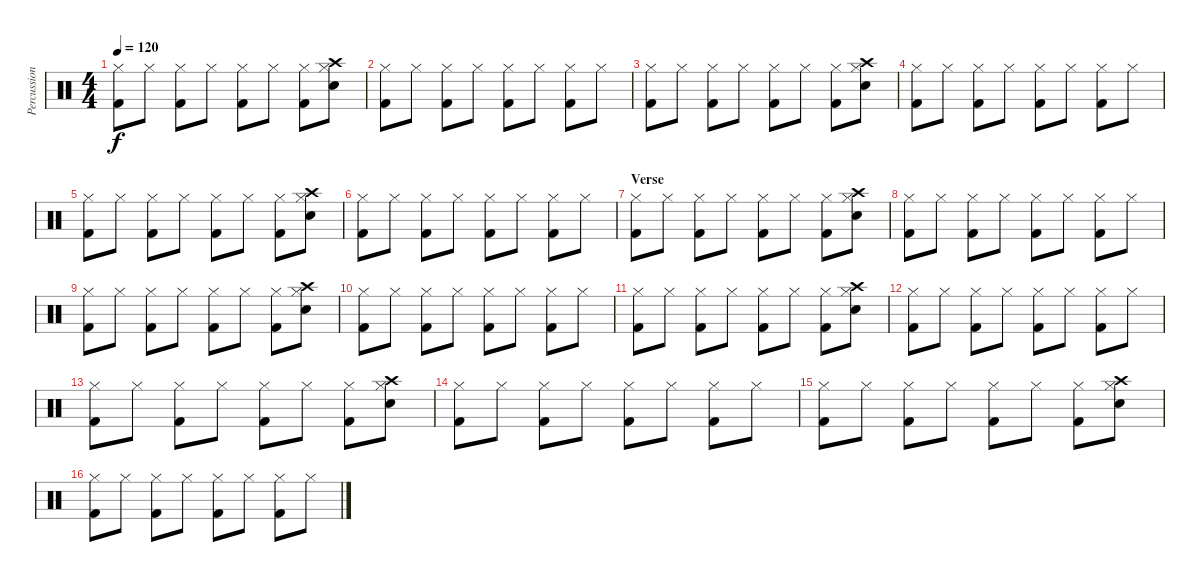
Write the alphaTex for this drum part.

\track ("Percussion" "Percussion") {instrument percussion}
\staff {score}
\articulation defaults
\ts (4 4)
\tempo 120
\clef neutral
\ks c
("Hi-Hat (closed)" "Kick (hit) 2").8{dy f} "Hi-Hat (closed)".8 ("Hi-Hat (closed)" "Kick (hit) 2").8 "Hi-Hat (closed)".8 ("Hi-Hat (closed)" "Kick (hit) 2").8 "Hi-Hat (closed)".8 ("Hi-Hat (closed)" "Kick (hit) 2").8 ("Hi-Hat (closed)" "Snare (hit) 2" "Crash high (hit)").8 |
("Hi-Hat (closed)" "Kick (hit) 2").8 "Hi-Hat (closed)".8 ("Hi-Hat (closed)" "Kick (hit) 2").8 "Hi-Hat (closed)".8 ("Hi-Hat (closed)" "Kick (hit) 2").8 "Hi-Hat (closed)".8 ("Hi-Hat (closed)" "Kick (hit) 2").8 "Hi-Hat (closed)".8 |
("Hi-Hat (closed)" "Kick (hit) 2").8 "Hi-Hat (closed)".8 ("Hi-Hat (closed)" "Kick (hit) 2").8 "Hi-Hat (closed)".8 ("Hi-Hat (closed)" "Kick (hit) 2").8 "Hi-Hat (closed)".8 ("Hi-Hat (closed)" "Kick (hit) 2").8 ("Hi-Hat (closed)" "Snare (hit) 2" "Crash high (hit)").8 |
("Hi-Hat (closed)" "Kick (hit) 2").8 "Hi-Hat (closed)".8 ("Hi-Hat (closed)" "Kick (hit) 2").8 "Hi-Hat (closed)".8 ("Hi-Hat (closed)" "Kick (hit) 2").8 "Hi-Hat (closed)".8 ("Hi-Hat (closed)" "Kick (hit) 2").8 "Hi-Hat (closed)".8 |
("Hi-Hat (closed)" "Kick (hit) 2").8 "Hi-Hat (closed)".8 ("Hi-Hat (closed)" "Kick (hit) 2").8 "Hi-Hat (closed)".8 ("Hi-Hat (closed)" "Kick (hit) 2").8 "Hi-Hat (closed)".8 ("Hi-Hat (closed)" "Kick (hit) 2").8 ("Hi-Hat (closed)" "Snare (hit) 2" "Crash high (hit)").8 |
("Hi-Hat (closed)" "Kick (hit) 2").8 "Hi-Hat (closed)".8 ("Hi-Hat (closed)" "Kick (hit) 2").8 "Hi-Hat (closed)".8 ("Hi-Hat (closed)" "Kick (hit) 2").8 "Hi-Hat (closed)".8 ("Hi-Hat (closed)" "Kick (hit) 2").8 "Hi-Hat (closed)".8 |
\section ("" "Verse")
("Hi-Hat (closed)" "Kick (hit) 2").8 "Hi-Hat (closed)".8 ("Hi-Hat (closed)" "Kick (hit) 2").8 "Hi-Hat (closed)".8 ("Hi-Hat (closed)" "Kick (hit) 2").8 "Hi-Hat (closed)".8 ("Hi-Hat (closed)" "Kick (hit) 2").8 ("Hi-Hat (closed)" "Snare (hit) 2" "Crash high (hit)").8 |
("Hi-Hat (closed)" "Kick (hit) 2").8 "Hi-Hat (closed)".8 ("Hi-Hat (closed)" "Kick (hit) 2").8 "Hi-Hat (closed)".8 ("Hi-Hat (closed)" "Kick (hit) 2").8 "Hi-Hat (closed)".8 ("Hi-Hat (closed)" "Kick (hit) 2").8 "Hi-Hat (closed)".8 |
("Hi-Hat (closed)" "Kick (hit) 2").8 "Hi-Hat (closed)".8 ("Hi-Hat (closed)" "Kick (hit) 2").8 "Hi-Hat (closed)".8 ("Hi-Hat (closed)" "Kick (hit) 2").8 "Hi-Hat (closed)".8 ("Hi-Hat (closed)" "Kick (hit) 2").8 ("Hi-Hat (closed)" "Snare (hit) 2" "Crash high (hit)").8 |
("Hi-Hat (closed)" "Kick (hit) 2").8 "Hi-Hat (closed)".8 ("Hi-Hat (closed)" "Kick (hit) 2").8 "Hi-Hat (closed)".8 ("Hi-Hat (closed)" "Kick (hit) 2").8 "Hi-Hat (closed)".8 ("Hi-Hat (closed)" "Kick (hit) 2").8 "Hi-Hat (closed)".8 |
("Hi-Hat (closed)" "Kick (hit) 2").8 "Hi-Hat (closed)".8 ("Hi-Hat (closed)" "Kick (hit) 2").8 "Hi-Hat (closed)".8 ("Hi-Hat (closed)" "Kick (hit) 2").8 "Hi-Hat (closed)".8 ("Hi-Hat (closed)" "Kick (hit) 2").8 ("Hi-Hat (closed)" "Snare (hit) 2" "Crash high (hit)").8 |
("Hi-Hat (closed)" "Kick (hit) 2").8 "Hi-Hat (closed)".8 ("Hi-Hat (closed)" "Kick (hit) 2").8 "Hi-Hat (closed)".8 ("Hi-Hat (closed)" "Kick (hit) 2").8 "Hi-Hat (closed)".8 ("Hi-Hat (closed)" "Kick (hit) 2").8 "Hi-Hat (closed)".8 |
("Hi-Hat (closed)" "Kick (hit) 2").8 "Hi-Hat (closed)".8 ("Hi-Hat (closed)" "Kick (hit) 2").8 "Hi-Hat (closed)".8 ("Hi-Hat (closed)" "Kick (hit) 2").8 "Hi-Hat (closed)".8 ("Hi-Hat (closed)" "Kick (hit) 2").8 ("Hi-Hat (closed)" "Snare (hit) 2" "Crash high (hit)").8 |
("Hi-Hat (closed)" "Kick (hit) 2").8 "Hi-Hat (closed)".8 ("Hi-Hat (closed)" "Kick (hit) 2").8 "Hi-Hat (closed)".8 ("Hi-Hat (closed)" "Kick (hit) 2").8 "Hi-Hat (closed)".8 ("Hi-Hat (closed)" "Kick (hit) 2").8 "Hi-Hat (closed)".8 |
("Hi-Hat (closed)" "Kick (hit) 2").8 "Hi-Hat (closed)".8 ("Hi-Hat (closed)" "Kick (hit) 2").8 "Hi-Hat (closed)".8 ("Hi-Hat (closed)" "Kick (hit) 2").8 "Hi-Hat (closed)".8 ("Hi-Hat (closed)" "Kick (hit) 2").8 ("Hi-Hat (closed)" "Snare (hit) 2" "Crash high (hit)").8 |
("Hi-Hat (closed)" "Kick (hit) 2").8 "Hi-Hat (closed)".8 ("Hi-Hat (closed)" "Kick (hit) 2").8 "Hi-Hat (closed)".8 ("Hi-Hat (closed)" "Kick (hit) 2").8 "Hi-Hat (closed)".8 ("Hi-Hat (closed)" "Kick (hit) 2").8 "Hi-Hat (closed)".8
